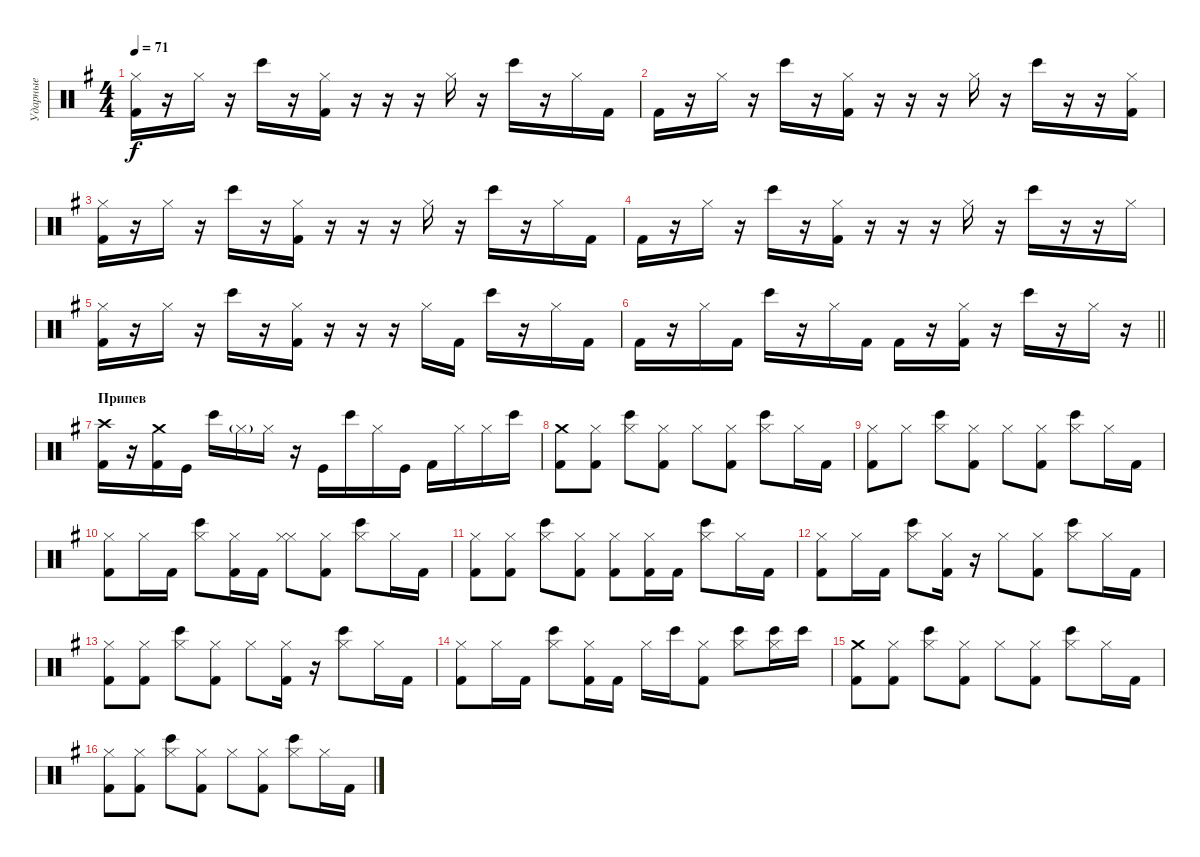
\track ("Ударные" "Ударные") {instrument percussion}
\staff {score}
\articulation defaults
\ts (4 4)
\tempo 71
\clef neutral
\ks eminor
("Hi-Hat (closed)" "Kick (hit) 2").16{dy f} r.16 "Hi-Hat (closed)".16 r.16 "Bongo High (hit)".16 r.16 ("Hi-Hat (closed)" "Kick (hit) 2").16 r.16 r.16 r.16 "Hi-Hat (closed)".16 r.16 "Bongo High (hit)".16 r.16 "Hi-Hat (closed)".16 "Kick (hit) 2".16 |
"Kick (hit) 2".16 r.16 "Hi-Hat (closed)".16 r.16 "Bongo High (hit)".16 r.16 ("Hi-Hat (closed)" "Kick (hit) 2").16 r.16 r.16 r.16 "Hi-Hat (closed)".16 r.16 "Bongo High (hit)".16 r.16 r.16 ("Hi-Hat (closed)" "Kick (hit) 2").16 |
("Hi-Hat (closed)" "Kick (hit) 2").16 r.16 "Hi-Hat (closed)".16 r.16 "Bongo High (hit)".16 r.16 ("Hi-Hat (closed)" "Kick (hit) 2").16 r.16 r.16 r.16 "Hi-Hat (closed)".16 r.16 "Bongo High (hit)".16 r.16 "Hi-Hat (closed)".16 "Kick (hit) 2".16 |
"Kick (hit) 2".16 r.16 "Hi-Hat (closed)".16 r.16 "Bongo High (hit)".16 r.16 ("Hi-Hat (closed)" "Kick (hit) 2").16 r.16 r.16 r.16 "Hi-Hat (closed)".16 r.16 "Bongo High (hit)".16 r.16 r.16 "Hi-Hat (closed)".16 |
("Hi-Hat (closed)" "Kick (hit) 2").16 r.16 "Hi-Hat (closed)".16 r.16 "Bongo High (hit)".16 r.16 ("Hi-Hat (closed)" "Kick (hit) 2").16 r.16 r.16 r.16 "Hi-Hat (closed)".16 "Kick (hit) 2".16 "Bongo High (hit)".16 r.16 "Hi-Hat (closed)".16 "Kick (hit) 2".16 |
\barLineRight lightlight "Kick (hit) 2".16
r.16 "Hi-Hat (closed)".16 "Kick (hit) 2".16 "Bongo High (hit)".16 r.16 "Hi-Hat (closed)".16 "Kick (hit) 2".16 "Kick (hit) 2".16 r.16 ("Hi-Hat (closed)" "Kick (hit) 2").16 r.16 "Bongo High (hit)".16 r.16 "Hi-Hat (closed)".16 r.16 |
\section ("" "Припев")
("Kick (hit) 2" "Crash high (hit)").16 r.16 ("Kick (hit) 2" "Crash medium (hit)").16 "Kick (hit)".16 "Bongo High (hit)".16 "Hi-Hat (closed)"{g}.16 "Hi-Hat (closed)".16 r.16 "Kick (hit)".16 "Bongo High (hit)".16 "Hi-Hat (closed)".16 "Kick (hit)".16 "Kick (hit) 2".16 "Hi-Hat (closed)".16 "Hi-Hat (closed)".16 "Bongo High (hit)".16 |
("Crash medium (hit)" "Kick (hit) 2").8 ("Hi-Hat (closed)" "Kick (hit) 2").8 ("Hi-Hat (closed)" "Bongo High (hit)").8 ("Hi-Hat (closed)" "Kick (hit) 2").8 "Hi-Hat (closed)".8 ("Hi-Hat (closed)" "Kick (hit) 2").8 ("Hi-Hat (closed)" "Bongo High (hit)").8 "Hi-Hat (closed)".16 "Kick (hit) 2".16 |
("Hi-Hat (closed)" "Kick (hit) 2").8 "Hi-Hat (closed)".8 ("Hi-Hat (closed)" "Bongo High (hit)").8 ("Hi-Hat (closed)" "Kick (hit) 2").8 "Hi-Hat (closed)".8 ("Hi-Hat (closed)" "Kick (hit) 2").8 ("Hi-Hat (closed)" "Bongo High (hit)").8 "Hi-Hat (closed)".16 "Kick (hit) 2".16 |
("Hi-Hat (closed)" "Kick (hit) 2").8 "Hi-Hat (closed)".16 "Kick (hit) 2".16 ("Hi-Hat (closed)" "Bongo High (hit)").8 ("Hi-Hat (closed)" "Kick (hit) 2").16 "Kick (hit) 2".16 ("Hi-Hat (closed)" "Hi-Hat (closed)").8 ("Hi-Hat (closed)" "Kick (hit) 2").8 ("Hi-Hat (closed)" "Bongo High (hit)").8 "Hi-Hat (closed)".16 "Kick (hit) 2".16 |
("Hi-Hat (closed)" "Kick (hit) 2").8 ("Hi-Hat (closed)" "Kick (hit) 2").8 ("Hi-Hat (closed)" "Bongo High (hit)").8 ("Hi-Hat (closed)" "Kick (hit) 2").8 ("Hi-Hat (closed)" "Kick (hit) 2").8 ("Hi-Hat (closed)" "Kick (hit) 2").16 "Kick (hit) 2".16 ("Hi-Hat (closed)" "Bongo High (hit)").8 "Hi-Hat (closed)".16 "Kick (hit) 2".16 |
("Hi-Hat (closed)" "Kick (hit) 2").8 "Hi-Hat (closed)".16 "Kick (hit) 2".16 ("Hi-Hat (closed)" "Bongo High (hit)").8 ("Hi-Hat (closed)" "Kick (hit) 2").16 r.16 "Hi-Hat (closed)".8 ("Hi-Hat (closed)" "Kick (hit) 2").8 ("Hi-Hat (closed)" "Bongo High (hit)").8 "Hi-Hat (closed)".16 "Kick (hit) 2".16 |
("Hi-Hat (closed)" "Kick (hit) 2").8 ("Hi-Hat (closed)" "Kick (hit) 2").8 ("Hi-Hat (closed)" "Bongo High (hit)").8 ("Hi-Hat (closed)" "Kick (hit) 2").8 "Hi-Hat (closed)".8 ("Hi-Hat (closed)" "Kick (hit) 2").16 r.16 ("Hi-Hat (closed)" "Bongo High (hit)").8 "Hi-Hat (closed)".16 "Kick (hit) 2".16 |
("Hi-Hat (closed)" "Kick (hit) 2").8 "Hi-Hat (closed)".16 "Kick (hit) 2".16 ("Hi-Hat (closed)" "Bongo High (hit)").8 ("Hi-Hat (closed)" "Kick (hit) 2").16 "Kick (hit) 2".16 "Hi-Hat (closed)".16 "Bongo High (hit)".16 ("Hi-Hat (closed)" "Kick (hit) 2").8 ("Hi-Hat (closed)" "Bongo High (hit)").8 ("Hi-Hat (closed)" "Bongo High (hit)").16 "Bongo High (hit)".16 |
("Crash medium (hit)" "Kick (hit) 2").8 ("Hi-Hat (closed)" "Kick (hit) 2").8 ("Hi-Hat (closed)" "Bongo High (hit)").8 ("Hi-Hat (closed)" "Kick (hit) 2").8 "Hi-Hat (closed)".8 ("Hi-Hat (closed)" "Kick (hit) 2").8 ("Hi-Hat (closed)" "Bongo High (hit)").8 "Hi-Hat (closed)".16 "Kick (hit) 2".16 |
("Hi-Hat (closed)" "Kick (hit) 2").8 ("Hi-Hat (closed)" "Kick (hit) 2").8 ("Hi-Hat (closed)" "Bongo High (hit)").8 ("Hi-Hat (closed)" "Kick (hit) 2").8 "Hi-Hat (closed)".8 ("Hi-Hat (closed)" "Kick (hit) 2").8 ("Hi-Hat (closed)" "Bongo High (hit)").8 "Hi-Hat (closed)".16 "Kick (hit) 2".16
